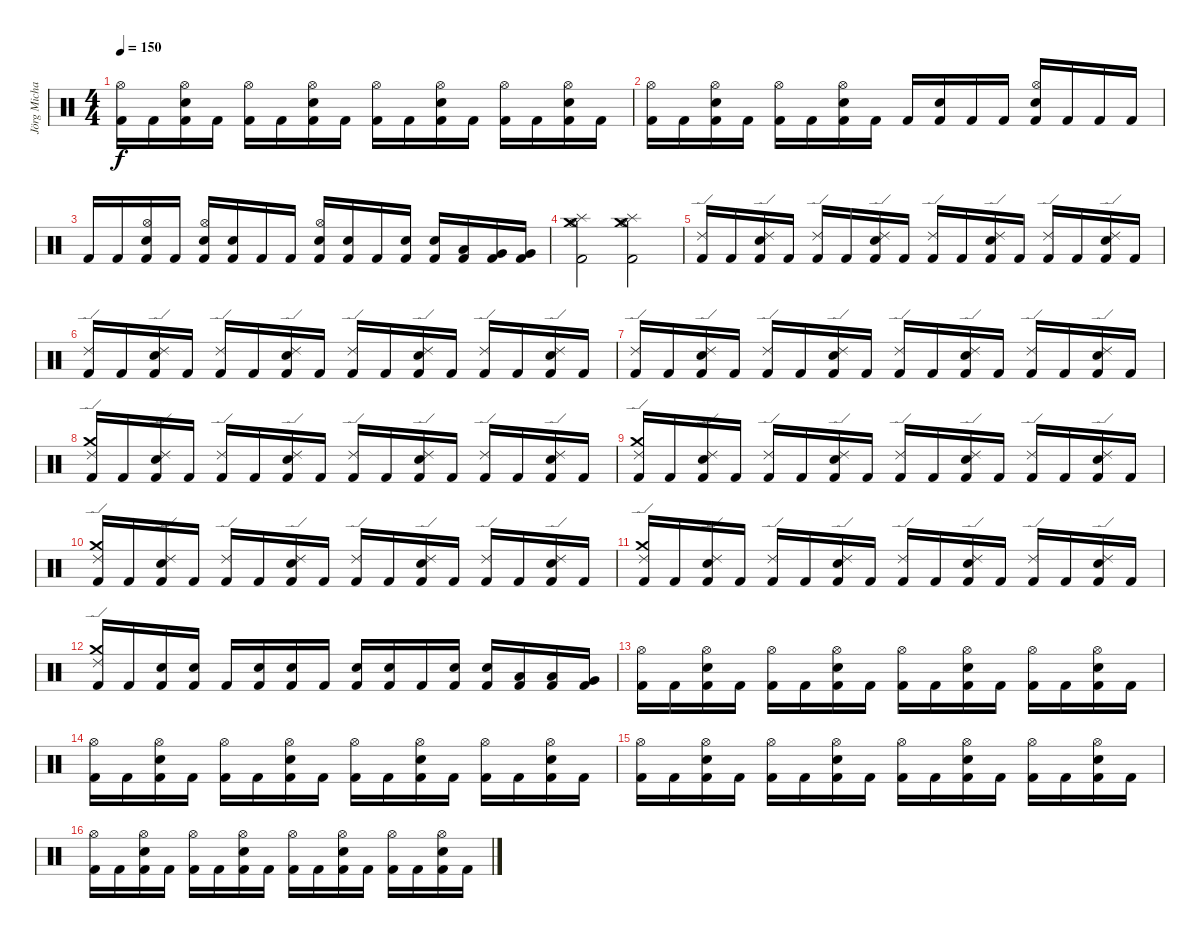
\track ("Jörg Michael (Drums)" "Jörg Micha") {instrument percussion}
\staff {score}
\articulation defaults
\ts (4 4)
\tempo 150
\clef neutral
\ks c
("Kick (hit) 2" "Hi-Hat (open)").16{dy f} "Kick (hit) 2".16 ("Kick (hit) 2" "Electric Snare (hit)" "Hi-Hat (open)").16 "Kick (hit) 2".16 ("Kick (hit) 2" "Hi-Hat (open)").16 "Kick (hit) 2".16 ("Kick (hit) 2" "Electric Snare (hit)" "Hi-Hat (open)").16 "Kick (hit) 2".16 ("Kick (hit) 2" "Hi-Hat (open)").16 "Kick (hit) 2".16 ("Kick (hit) 2" "Electric Snare (hit)" "Hi-Hat (open)").16 "Kick (hit) 2".16 ("Kick (hit) 2" "Hi-Hat (open)").16 "Kick (hit) 2".16 ("Kick (hit) 2" "Electric Snare (hit)" "Hi-Hat (open)").16 "Kick (hit) 2".16 |
("Kick (hit) 2" "Hi-Hat (open)").16 "Kick (hit) 2".16 ("Kick (hit) 2" "Electric Snare (hit)" "Hi-Hat (open)").16 "Kick (hit) 2".16 ("Kick (hit) 2" "Hi-Hat (open)").16 "Kick (hit) 2".16 ("Kick (hit) 2" "Electric Snare (hit)" "Hi-Hat (open)").16 "Kick (hit) 2".16 "Kick (hit) 2".16 ("Electric Snare (hit)" "Kick (hit) 2").16 "Kick (hit) 2".16 "Kick (hit) 2".16 ("Hi-Hat (open)" "Electric Snare (hit)" "Kick (hit) 2").16 "Kick (hit) 2".16 "Kick (hit) 2".16 "Kick (hit) 2".16 |
"Kick (hit) 2".16 "Kick (hit) 2".16 ("Hi-Hat (open)" "Kick (hit) 2" "Electric Snare (hit)").16 "Kick (hit) 2".16 ("Hi-Hat (open)" "Kick (hit) 2" "Electric Snare (hit)").16 ("Kick (hit) 2" "Electric Snare (hit)").16 "Kick (hit) 2".16 "Kick (hit) 2".16 ("Hi-Hat (open)" "Kick (hit) 2" "Electric Snare (hit)").16 ("Kick (hit) 2" "Electric Snare (hit)").16 "Kick (hit) 2".16 ("Kick (hit) 2" "Electric Snare (hit)").16 ("Kick (hit) 2" "Electric Snare (hit)").16 ("Kick (hit) 2" "Low Tom (hit)").16 ("Kick (hit) 2" "Very Low Tom (hit)").16 ("Kick (hit) 2" "Very Low Tom (hit)").16 |
("Hi-Hat (open)" "Crash medium (hit)" "Splash (hit)" "Kick (hit) 2").2 ("Hi-Hat (open)" "Crash medium (hit)" "Splash (hit)" "Kick (hit) 2").2 |
("Kick (hit) 2" "Ride (edge) 2").16 "Kick (hit) 2".16 ("Kick (hit) 2" "Electric Snare (hit)" "Ride (edge) 2").16 "Kick (hit) 2".16 ("Kick (hit) 2" "Ride (edge) 2").16 "Kick (hit) 2".16 ("Kick (hit) 2" "Electric Snare (hit)" "Ride (edge) 2").16 "Kick (hit) 2".16 ("Kick (hit) 2" "Ride (edge) 2").16 "Kick (hit) 2".16 ("Kick (hit) 2" "Electric Snare (hit)" "Ride (edge) 2").16 "Kick (hit) 2".16 ("Kick (hit) 2" "Ride (edge) 2").16 "Kick (hit) 2".16 ("Kick (hit) 2" "Electric Snare (hit)" "Ride (edge) 2").16 "Kick (hit) 2".16 |
("Kick (hit) 2" "Ride (edge) 2").16 "Kick (hit) 2".16 ("Kick (hit) 2" "Electric Snare (hit)" "Ride (edge) 2").16 "Kick (hit) 2".16 ("Kick (hit) 2" "Ride (edge) 2").16 "Kick (hit) 2".16 ("Kick (hit) 2" "Electric Snare (hit)" "Ride (edge) 2").16 "Kick (hit) 2".16 ("Kick (hit) 2" "Ride (edge) 2").16 "Kick (hit) 2".16 ("Kick (hit) 2" "Electric Snare (hit)" "Ride (edge) 2").16 "Kick (hit) 2".16 ("Kick (hit) 2" "Ride (edge) 2").16 "Kick (hit) 2".16 ("Kick (hit) 2" "Electric Snare (hit)" "Ride (edge) 2").16 "Kick (hit) 2".16 |
("Kick (hit) 2" "Ride (edge) 2").16 "Kick (hit) 2".16 ("Kick (hit) 2" "Electric Snare (hit)" "Ride (edge) 2").16 "Kick (hit) 2".16 ("Kick (hit) 2" "Ride (edge) 2").16 "Kick (hit) 2".16 ("Kick (hit) 2" "Electric Snare (hit)" "Ride (edge) 2").16 "Kick (hit) 2".16 ("Kick (hit) 2" "Ride (edge) 2").16 "Kick (hit) 2".16 ("Kick (hit) 2" "Electric Snare (hit)" "Ride (edge) 2").16 "Kick (hit) 2".16 ("Kick (hit) 2" "Ride (edge) 2").16 "Kick (hit) 2".16 ("Kick (hit) 2" "Electric Snare (hit)" "Ride (edge) 2").16 "Kick (hit) 2".16 |
("Crash medium (hit)" "Kick (hit) 2" "Ride (edge) 2").16 "Kick (hit) 2".16 ("Kick (hit) 2" "Electric Snare (hit)" "Ride (edge) 2").16 "Kick (hit) 2".16 ("Kick (hit) 2" "Ride (edge) 2").16 "Kick (hit) 2".16 ("Kick (hit) 2" "Electric Snare (hit)" "Ride (edge) 2").16 "Kick (hit) 2".16 ("Kick (hit) 2" "Ride (edge) 2").16 "Kick (hit) 2".16 ("Kick (hit) 2" "Electric Snare (hit)" "Ride (edge) 2").16 "Kick (hit) 2".16 ("Kick (hit) 2" "Ride (edge) 2").16 "Kick (hit) 2".16 ("Kick (hit) 2" "Electric Snare (hit)" "Ride (edge) 2").16 "Kick (hit) 2".16 |
("Crash medium (hit)" "Kick (hit) 2" "Ride (edge) 2").16 "Kick (hit) 2".16 ("Kick (hit) 2" "Electric Snare (hit)" "Ride (edge) 2").16 "Kick (hit) 2".16 ("Kick (hit) 2" "Ride (edge) 2").16 "Kick (hit) 2".16 ("Kick (hit) 2" "Electric Snare (hit)" "Ride (edge) 2").16 "Kick (hit) 2".16 ("Kick (hit) 2" "Ride (edge) 2").16 "Kick (hit) 2".16 ("Kick (hit) 2" "Electric Snare (hit)" "Ride (edge) 2").16 "Kick (hit) 2".16 ("Kick (hit) 2" "Ride (edge) 2").16 "Kick (hit) 2".16 ("Kick (hit) 2" "Electric Snare (hit)" "Ride (edge) 2").16 "Kick (hit) 2".16 |
("Crash medium (hit)" "Kick (hit) 2" "Ride (edge) 2").16 "Kick (hit) 2".16 ("Kick (hit) 2" "Electric Snare (hit)" "Ride (edge) 2").16 "Kick (hit) 2".16 ("Kick (hit) 2" "Ride (edge) 2").16 "Kick (hit) 2".16 ("Kick (hit) 2" "Electric Snare (hit)" "Ride (edge) 2").16 "Kick (hit) 2".16 ("Kick (hit) 2" "Ride (edge) 2").16 "Kick (hit) 2".16 ("Kick (hit) 2" "Electric Snare (hit)" "Ride (edge) 2").16 "Kick (hit) 2".16 ("Kick (hit) 2" "Ride (edge) 2").16 "Kick (hit) 2".16 ("Kick (hit) 2" "Electric Snare (hit)" "Ride (edge) 2").16 "Kick (hit) 2".16 |
("Crash medium (hit)" "Kick (hit) 2" "Ride (edge) 2").16 "Kick (hit) 2".16 ("Kick (hit) 2" "Electric Snare (hit)" "Ride (edge) 2").16 "Kick (hit) 2".16 ("Kick (hit) 2" "Ride (edge) 2").16 "Kick (hit) 2".16 ("Kick (hit) 2" "Electric Snare (hit)" "Ride (edge) 2").16 "Kick (hit) 2".16 ("Kick (hit) 2" "Ride (edge) 2").16 "Kick (hit) 2".16 ("Kick (hit) 2" "Electric Snare (hit)" "Ride (edge) 2").16 "Kick (hit) 2".16 ("Kick (hit) 2" "Ride (edge) 2").16 "Kick (hit) 2".16 ("Kick (hit) 2" "Electric Snare (hit)" "Ride (edge) 2").16 "Kick (hit) 2".16 |
("Crash medium (hit)" "Kick (hit) 2" "Ride (edge) 2").16 "Kick (hit) 2".16 ("Electric Snare (hit)" "Kick (hit) 2").16 ("Electric Snare (hit)" "Kick (hit) 2").16 "Kick (hit) 2".16 ("Electric Snare (hit)" "Kick (hit) 2").16 ("Electric Snare (hit)" "Kick (hit) 2").16 "Kick (hit) 2".16 ("Electric Snare (hit)" "Kick (hit) 2").16 ("Electric Snare (hit)" "Kick (hit) 2").16 "Kick (hit) 2".16 ("Electric Snare (hit)" "Kick (hit) 2").16 ("Electric Snare (hit)" "Kick (hit) 2").16 ("Low Tom (hit)" "Kick (hit) 2").16 ("Low Tom (hit)" "Kick (hit) 2").16 ("Very Low Tom (hit)" "Kick (hit) 2").16 |
("Hi-Hat (open)" "Kick (hit) 2").16 "Kick (hit) 2".16 ("Hi-Hat (open)" "Electric Snare (hit)" "Kick (hit) 2").16 "Kick (hit) 2".16 ("Hi-Hat (open)" "Kick (hit) 2").16 "Kick (hit) 2".16 ("Hi-Hat (open)" "Electric Snare (hit)" "Kick (hit) 2").16 "Kick (hit) 2".16 ("Hi-Hat (open)" "Kick (hit) 2").16 "Kick (hit) 2".16 ("Hi-Hat (open)" "Electric Snare (hit)" "Kick (hit) 2").16 "Kick (hit) 2".16 ("Hi-Hat (open)" "Kick (hit) 2").16 "Kick (hit) 2".16 ("Hi-Hat (open)" "Electric Snare (hit)" "Kick (hit) 2").16 "Kick (hit) 2".16 |
("Hi-Hat (open)" "Kick (hit) 2").16 "Kick (hit) 2".16 ("Hi-Hat (open)" "Electric Snare (hit)" "Kick (hit) 2").16 "Kick (hit) 2".16 ("Hi-Hat (open)" "Kick (hit) 2").16 "Kick (hit) 2".16 ("Hi-Hat (open)" "Electric Snare (hit)" "Kick (hit) 2").16 "Kick (hit) 2".16 ("Hi-Hat (open)" "Kick (hit) 2").16 "Kick (hit) 2".16 ("Hi-Hat (open)" "Electric Snare (hit)" "Kick (hit) 2").16 "Kick (hit) 2".16 ("Hi-Hat (open)" "Kick (hit) 2").16 "Kick (hit) 2".16 ("Hi-Hat (open)" "Electric Snare (hit)" "Kick (hit) 2").16 "Kick (hit) 2".16 |
("Hi-Hat (open)" "Kick (hit) 2").16 "Kick (hit) 2".16 ("Hi-Hat (open)" "Electric Snare (hit)" "Kick (hit) 2").16 "Kick (hit) 2".16 ("Hi-Hat (open)" "Kick (hit) 2").16 "Kick (hit) 2".16 ("Hi-Hat (open)" "Electric Snare (hit)" "Kick (hit) 2").16 "Kick (hit) 2".16 ("Hi-Hat (open)" "Kick (hit) 2").16 "Kick (hit) 2".16 ("Hi-Hat (open)" "Electric Snare (hit)" "Kick (hit) 2").16 "Kick (hit) 2".16 ("Hi-Hat (open)" "Kick (hit) 2").16 "Kick (hit) 2".16 ("Hi-Hat (open)" "Electric Snare (hit)" "Kick (hit) 2").16 "Kick (hit) 2".16 |
("Hi-Hat (open)" "Kick (hit) 2").16 "Kick (hit) 2".16 ("Hi-Hat (open)" "Electric Snare (hit)" "Kick (hit) 2").16 "Kick (hit) 2".16 ("Hi-Hat (open)" "Kick (hit) 2").16 "Kick (hit) 2".16 ("Hi-Hat (open)" "Electric Snare (hit)" "Kick (hit) 2").16 "Kick (hit) 2".16 ("Hi-Hat (open)" "Kick (hit) 2").16 "Kick (hit) 2".16 ("Hi-Hat (open)" "Electric Snare (hit)" "Kick (hit) 2").16 "Kick (hit) 2".16 ("Hi-Hat (open)" "Kick (hit) 2").16 "Kick (hit) 2".16 ("Hi-Hat (open)" "Electric Snare (hit)" "Kick (hit) 2").16 "Kick (hit) 2".16
